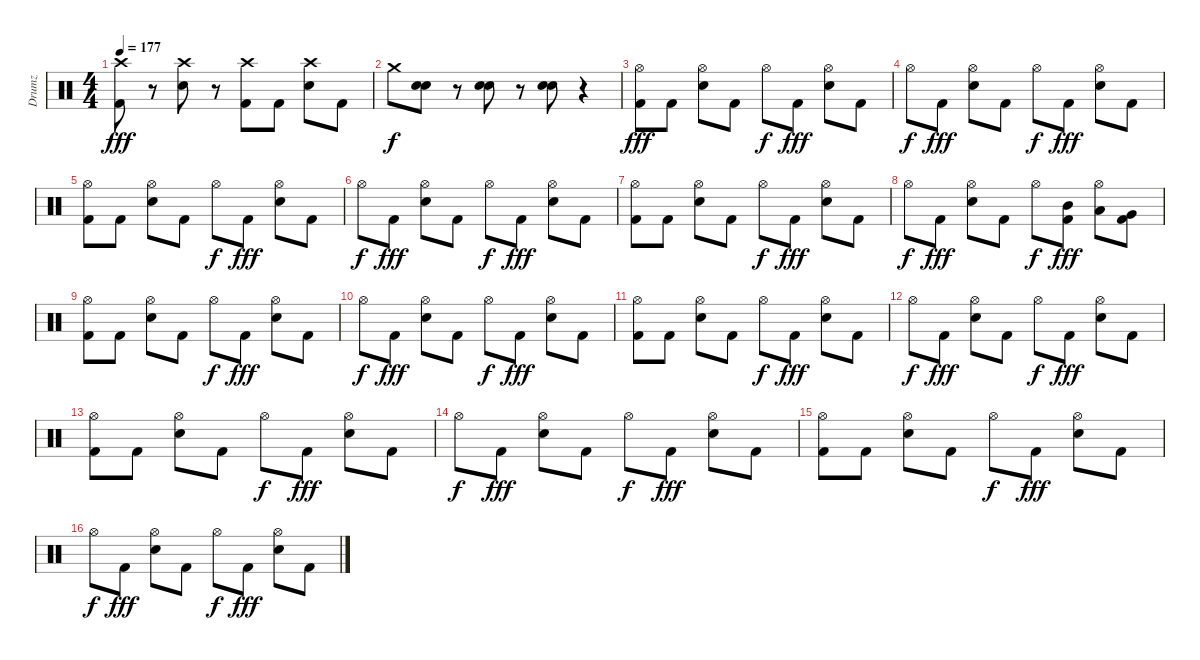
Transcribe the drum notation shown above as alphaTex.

\track ("Drumz" "Drumz") {instrument percussion}
\staff {score}
\articulation defaults
\ts (4 4)
\tempo 177
\clef neutral
\ks c
("Crash high (hit)" "Kick (hit) 2").8{dy fff} r.8 ("Crash high (hit)" "Snare (hit) 2").8 r.8 ("Kick (hit) 2" "Crash high (hit)").8 "Kick (hit) 2".8 ("Crash high (hit)" "Snare (hit) 2").8 "Kick (hit) 2".8 |
"Crash medium (hit)".8{dy f} ("Snare (hit) 2" "Electric Snare (hit)").8 r.8 ("Snare (hit) 2" "Electric Snare (hit)").8 r.8 ("Snare (hit) 2" "Electric Snare (hit)").8 r.4 |
("Kick (hit) 2" "Hi-Hat (open)").8{dy fff} "Kick (hit) 2".8 ("Snare (hit) 2" "Hi-Hat (open)").8 "Kick (hit) 2".8 "Hi-Hat (open)".8{dy f} "Kick (hit) 2".8{dy fff} ("Snare (hit) 2" "Hi-Hat (open)").8 "Kick (hit) 2".8 |
"Hi-Hat (open)".8{dy f} "Kick (hit) 2".8{dy fff} ("Snare (hit) 2" "Hi-Hat (open)").8 "Kick (hit) 2".8 "Hi-Hat (open)".8{dy f} "Kick (hit) 2".8{dy fff} ("Snare (hit) 2" "Hi-Hat (open)").8 "Kick (hit) 2".8 |
("Kick (hit) 2" "Hi-Hat (open)").8 "Kick (hit) 2".8 ("Snare (hit) 2" "Hi-Hat (open)").8 "Kick (hit) 2".8 "Hi-Hat (open)".8{dy f} "Kick (hit) 2".8{dy fff} ("Snare (hit) 2" "Hi-Hat (open)").8 "Kick (hit) 2".8 |
"Hi-Hat (open)".8{dy f} "Kick (hit) 2".8{dy fff} ("Snare (hit) 2" "Hi-Hat (open)").8 "Kick (hit) 2".8 "Hi-Hat (open)".8{dy f} "Kick (hit) 2".8{dy fff} ("Snare (hit) 2" "Hi-Hat (open)").8 "Kick (hit) 2".8 |
("Kick (hit) 2" "Hi-Hat (open)").8 "Kick (hit) 2".8 ("Snare (hit) 2" "Hi-Hat (open)").8 "Kick (hit) 2".8 "Hi-Hat (open)".8{dy f} "Kick (hit) 2".8{dy fff} ("Snare (hit) 2" "Hi-Hat (open)").8 "Kick (hit) 2".8 |
"Hi-Hat (open)".8{dy f} "Kick (hit) 2".8{dy fff} ("Snare (hit) 2" "Hi-Hat (open)").8 "Kick (hit) 2".8 "Hi-Hat (open)".8{dy f} ("Mid Tom (hit)" "Kick (hit) 2").8{dy fff} ("Low Tom (hit)" "Hi-Hat (open)").8 ("Very Low Tom (hit)" "Kick (hit) 2").8 |
("Kick (hit) 2" "Hi-Hat (open)").8 "Kick (hit) 2".8 ("Snare (hit) 2" "Hi-Hat (open)").8 "Kick (hit) 2".8 "Hi-Hat (open)".8{dy f} "Kick (hit) 2".8{dy fff} ("Snare (hit) 2" "Hi-Hat (open)").8 "Kick (hit) 2".8 |
"Hi-Hat (open)".8{dy f} "Kick (hit) 2".8{dy fff} ("Snare (hit) 2" "Hi-Hat (open)").8 "Kick (hit) 2".8 "Hi-Hat (open)".8{dy f} "Kick (hit) 2".8{dy fff} ("Snare (hit) 2" "Hi-Hat (open)").8 "Kick (hit) 2".8 |
("Kick (hit) 2" "Hi-Hat (open)").8 "Kick (hit) 2".8 ("Snare (hit) 2" "Hi-Hat (open)").8 "Kick (hit) 2".8 "Hi-Hat (open)".8{dy f} "Kick (hit) 2".8{dy fff} ("Snare (hit) 2" "Hi-Hat (open)").8 "Kick (hit) 2".8 |
"Hi-Hat (open)".8{dy f} "Kick (hit) 2".8{dy fff} ("Snare (hit) 2" "Hi-Hat (open)").8 "Kick (hit) 2".8 "Hi-Hat (open)".8{dy f} "Kick (hit) 2".8{dy fff} ("Snare (hit) 2" "Hi-Hat (open)").8 "Kick (hit) 2".8 |
("Kick (hit) 2" "Hi-Hat (open)").8 "Kick (hit) 2".8 ("Snare (hit) 2" "Hi-Hat (open)").8 "Kick (hit) 2".8 "Hi-Hat (open)".8{dy f} "Kick (hit) 2".8{dy fff} ("Snare (hit) 2" "Hi-Hat (open)").8 "Kick (hit) 2".8 |
"Hi-Hat (open)".8{dy f} "Kick (hit) 2".8{dy fff} ("Snare (hit) 2" "Hi-Hat (open)").8 "Kick (hit) 2".8 "Hi-Hat (open)".8{dy f} "Kick (hit) 2".8{dy fff} ("Snare (hit) 2" "Hi-Hat (open)").8 "Kick (hit) 2".8 |
("Kick (hit) 2" "Hi-Hat (open)").8 "Kick (hit) 2".8 ("Snare (hit) 2" "Hi-Hat (open)").8 "Kick (hit) 2".8 "Hi-Hat (open)".8{dy f} "Kick (hit) 2".8{dy fff} ("Snare (hit) 2" "Hi-Hat (open)").8 "Kick (hit) 2".8 |
"Hi-Hat (open)".8{dy f} "Kick (hit) 2".8{dy fff} ("Snare (hit) 2" "Hi-Hat (open)").8 "Kick (hit) 2".8 "Hi-Hat (open)".8{dy f} "Kick (hit) 2".8{dy fff} ("Snare (hit) 2" "Hi-Hat (open)").8 "Kick (hit) 2".8
